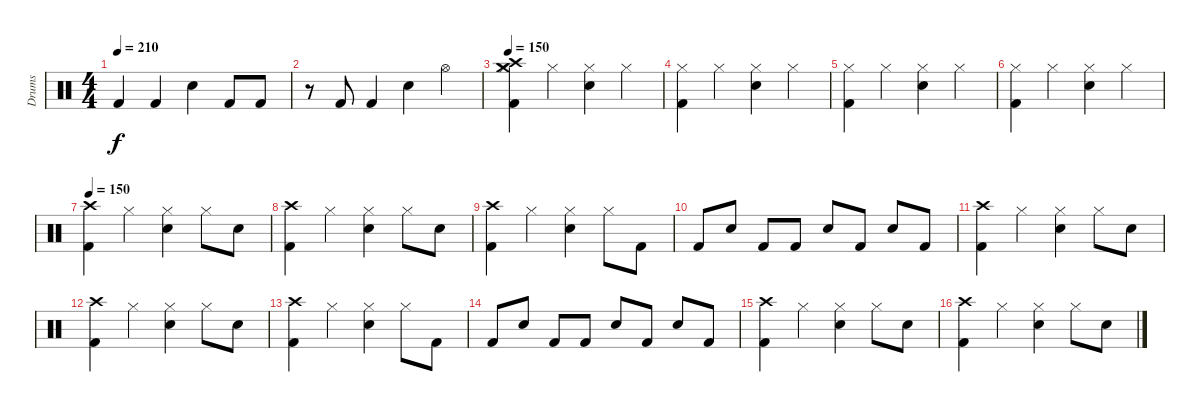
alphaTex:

\track ("Drums" "Drums") {instrument percussion}
\staff {score}
\articulation defaults
\ts (4 4)
\tempo 210
\clef neutral
\ks c "Kick (hit) 2".4{dy f} "Kick (hit) 2".4 "Electric Snare (hit)".4 "Kick (hit) 2".8 "Kick (hit) 2".8
|
r.8 "Kick (hit) 2".8 "Kick (hit) 2".4 "Electric Snare (hit)".4 "Hi-Hat (open)".4 |
\tempo 150
("Crash medium (hit)" "Crash high (hit)" "Kick (hit) 2" "Hi-Hat (closed)").4 "Hi-Hat (closed)".4 ("Electric Snare (hit)" "Hi-Hat (closed)").4 "Hi-Hat (closed)".4 |
("Kick (hit) 2" "Hi-Hat (closed)").4 "Hi-Hat (closed)".4 ("Electric Snare (hit)" "Hi-Hat (closed)").4 "Hi-Hat (closed)".4 |
("Kick (hit) 2" "Hi-Hat (closed)").4 "Hi-Hat (closed)".4 ("Electric Snare (hit)" "Hi-Hat (closed)").4 "Hi-Hat (closed)".4 |
("Kick (hit) 2" "Hi-Hat (closed)").4 "Hi-Hat (closed)".4 ("Electric Snare (hit)" "Hi-Hat (closed)").4 "Hi-Hat (closed)".4 |
\tempo 150
("Crash high (hit)" "Kick (hit) 2").4 "Hi-Hat (closed)".4 ("Hi-Hat (closed)" "Electric Snare (hit)").4 "Hi-Hat (closed)".8 "Electric Snare (hit)".8 |
("Crash high (hit)" "Kick (hit) 2").4 "Hi-Hat (closed)".4 ("Electric Snare (hit)" "Hi-Hat (closed)").4 "Hi-Hat (closed)".8 "Electric Snare (hit)".8 |
("Crash high (hit)" "Kick (hit) 2").4 "Hi-Hat (closed)".4 ("Hi-Hat (closed)" "Electric Snare (hit)").4 "Hi-Hat (closed)".8 "Kick (hit) 2".8 |
"Kick (hit) 2".8 "Electric Snare (hit)".8 "Kick (hit) 2".8 "Kick (hit) 2".8 "Electric Snare (hit)".8 "Kick (hit) 2".8 "Electric Snare (hit)".8 "Kick (hit) 2".8 |
("Crash high (hit)" "Kick (hit) 2").4 "Hi-Hat (closed)".4 ("Hi-Hat (closed)" "Electric Snare (hit)").4 "Hi-Hat (closed)".8 "Electric Snare (hit)".8 |
("Crash high (hit)" "Kick (hit) 2").4 "Hi-Hat (closed)".4 ("Electric Snare (hit)" "Hi-Hat (closed)").4 "Hi-Hat (closed)".8 "Electric Snare (hit)".8 |
("Crash high (hit)" "Kick (hit) 2").4 "Hi-Hat (closed)".4 ("Hi-Hat (closed)" "Electric Snare (hit)").4 "Hi-Hat (closed)".8 "Kick (hit) 2".8 |
"Kick (hit) 2".8 "Electric Snare (hit)".8 "Kick (hit) 2".8 "Kick (hit) 2".8 "Electric Snare (hit)".8 "Kick (hit) 2".8 "Electric Snare (hit)".8 "Kick (hit) 2".8 |
("Crash high (hit)" "Kick (hit) 2").4 "Hi-Hat (closed)".4 ("Hi-Hat (closed)" "Electric Snare (hit)").4 "Hi-Hat (closed)".8 "Electric Snare (hit)".8 |
("Crash high (hit)" "Kick (hit) 2").4 "Hi-Hat (closed)".4 ("Electric Snare (hit)" "Hi-Hat (closed)").4 "Hi-Hat (closed)".8 "Electric Snare (hit)".8
